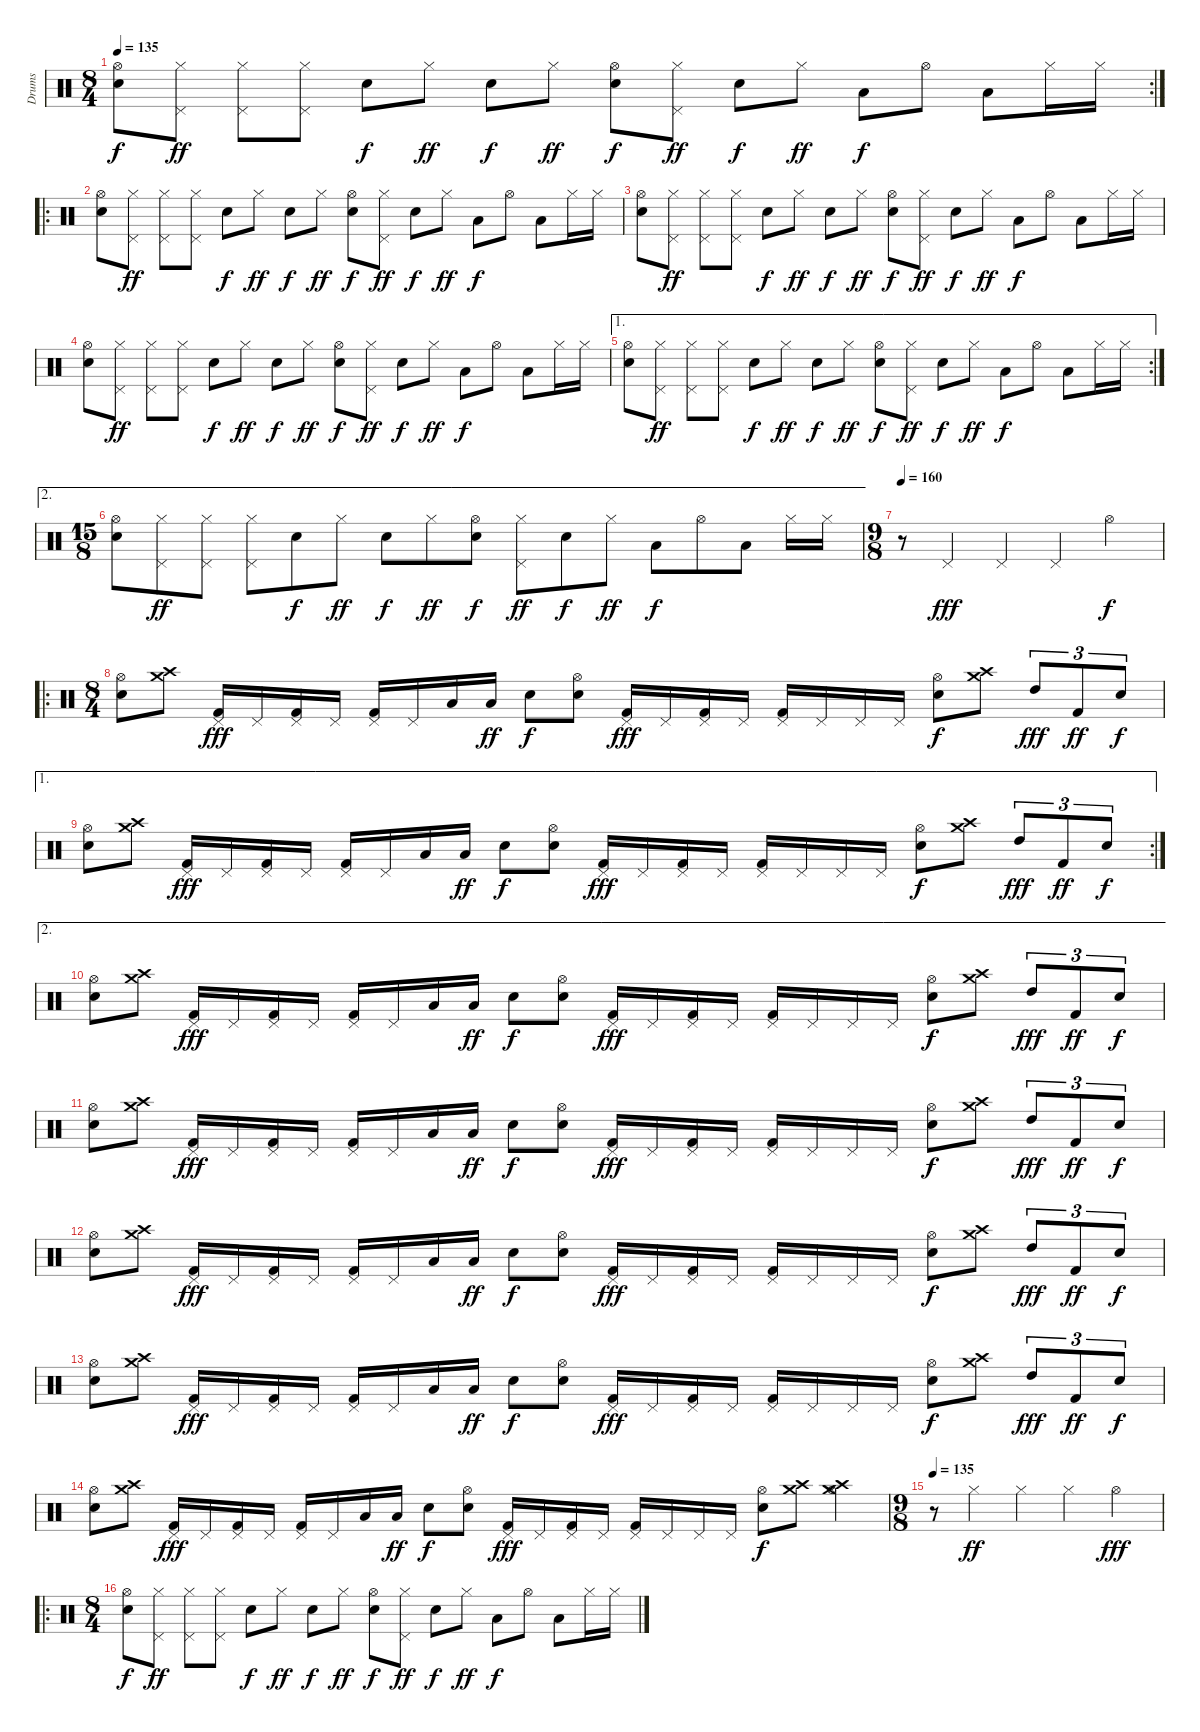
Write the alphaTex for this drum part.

\track ("Drums" "Drums") {instrument percussion}
\staff {score}
\articulation defaults
\rc 2
\ts (8 4)
\tempo 135
\clef neutral
\ks c
("Hi-Hat (open)" "Electric Snare (hit)").8{dy f} ("Pedal Hi-Hat (hit)" "Hi-Hat (closed)").8{dy ff} ("Hi-Hat (closed)" "Pedal Hi-Hat (hit)").8 ("Hi-Hat (closed)" "Pedal Hi-Hat (hit)").8 "Electric Snare (hit)".8{dy f} "Hi-Hat (closed)".8{dy ff} "Electric Snare (hit)".8{dy f} "Hi-Hat (closed)".8{dy ff} ("Hi-Hat (open)" "Electric Snare (hit)").8{dy f} ("Pedal Hi-Hat (hit)" "Hi-Hat (closed)").8{dy ff} "Electric Snare (hit)".8{dy f} "Hi-Hat (closed)".8{dy ff} "Low Tom (hit)".8{dy f} "Hi-Hat (open)".8 "Low Tom (hit)".8 "Hi-Hat (closed)".16 "Hi-Hat (closed)".16 |
\ro
("Hi-Hat (open)" "Electric Snare (hit)").8 ("Pedal Hi-Hat (hit)" "Hi-Hat (closed)").8{dy ff} ("Hi-Hat (closed)" "Pedal Hi-Hat (hit)").8 ("Hi-Hat (closed)" "Pedal Hi-Hat (hit)").8 "Electric Snare (hit)".8{dy f} "Hi-Hat (closed)".8{dy ff} "Electric Snare (hit)".8{dy f} "Hi-Hat (closed)".8{dy ff} ("Hi-Hat (open)" "Electric Snare (hit)").8{dy f} ("Pedal Hi-Hat (hit)" "Hi-Hat (closed)").8{dy ff} "Electric Snare (hit)".8{dy f} "Hi-Hat (closed)".8{dy ff} "Low Tom (hit)".8{dy f} "Hi-Hat (open)".8 "Low Tom (hit)".8 "Hi-Hat (closed)".16 "Hi-Hat (closed)".16 |
("Hi-Hat (open)" "Electric Snare (hit)").8 ("Pedal Hi-Hat (hit)" "Hi-Hat (closed)").8{dy ff} ("Hi-Hat (closed)" "Pedal Hi-Hat (hit)").8 ("Hi-Hat (closed)" "Pedal Hi-Hat (hit)").8 "Electric Snare (hit)".8{dy f} "Hi-Hat (closed)".8{dy ff} "Electric Snare (hit)".8{dy f} "Hi-Hat (closed)".8{dy ff} ("Hi-Hat (open)" "Electric Snare (hit)").8{dy f} ("Pedal Hi-Hat (hit)" "Hi-Hat (closed)").8{dy ff} "Electric Snare (hit)".8{dy f} "Hi-Hat (closed)".8{dy ff} "Low Tom (hit)".8{dy f} "Hi-Hat (open)".8 "Low Tom (hit)".8 "Hi-Hat (closed)".16 "Hi-Hat (closed)".16 |
("Hi-Hat (open)" "Electric Snare (hit)").8 ("Pedal Hi-Hat (hit)" "Hi-Hat (closed)").8{dy ff} ("Hi-Hat (closed)" "Pedal Hi-Hat (hit)").8 ("Hi-Hat (closed)" "Pedal Hi-Hat (hit)").8 "Electric Snare (hit)".8{dy f} "Hi-Hat (closed)".8{dy ff} "Electric Snare (hit)".8{dy f} "Hi-Hat (closed)".8{dy ff} ("Hi-Hat (open)" "Electric Snare (hit)").8{dy f} ("Pedal Hi-Hat (hit)" "Hi-Hat (closed)").8{dy ff} "Electric Snare (hit)".8{dy f} "Hi-Hat (closed)".8{dy ff} "Low Tom (hit)".8{dy f} "Hi-Hat (open)".8 "Low Tom (hit)".8 "Hi-Hat (closed)".16 "Hi-Hat (closed)".16 |
\ae 1
\rc 2
("Hi-Hat (open)" "Electric Snare (hit)").8 ("Pedal Hi-Hat (hit)" "Hi-Hat (closed)").8{dy ff} ("Hi-Hat (closed)" "Pedal Hi-Hat (hit)").8 ("Hi-Hat (closed)" "Pedal Hi-Hat (hit)").8 "Electric Snare (hit)".8{dy f} "Hi-Hat (closed)".8{dy ff} "Electric Snare (hit)".8{dy f} "Hi-Hat (closed)".8{dy ff} ("Hi-Hat (open)" "Electric Snare (hit)").8{dy f} ("Pedal Hi-Hat (hit)" "Hi-Hat (closed)").8{dy ff} "Electric Snare (hit)".8{dy f} "Hi-Hat (closed)".8{dy ff} "Low Tom (hit)".8{dy f} "Hi-Hat (open)".8 "Low Tom (hit)".8 "Hi-Hat (closed)".16 "Hi-Hat (closed)".16 |
\ae 2
\ts (15 8)
("Hi-Hat (open)" "Electric Snare (hit)").8 ("Pedal Hi-Hat (hit)" "Hi-Hat (closed)").8{dy ff} ("Hi-Hat (closed)" "Pedal Hi-Hat (hit)").8 ("Hi-Hat (closed)" "Pedal Hi-Hat (hit)").8 "Electric Snare (hit)".8{dy f} "Hi-Hat (closed)".8{dy ff} "Electric Snare (hit)".8{dy f} "Hi-Hat (closed)".8{dy ff} ("Hi-Hat (open)" "Electric Snare (hit)").8{dy f} ("Pedal Hi-Hat (hit)" "Hi-Hat (closed)").8{dy ff} "Electric Snare (hit)".8{dy f} "Hi-Hat (closed)".8{dy ff} "Low Tom (hit)".8{dy f} "Hi-Hat (open)".8 "Low Tom (hit)".8 "Hi-Hat (closed)".16 "Hi-Hat (closed)".16 |
\ts (9 8)
\tempo 160
r.8 "Pedal Hi-Hat (hit)".4{dy fff} "Pedal Hi-Hat (hit)".4 "Pedal Hi-Hat (hit)".4 "Hi-Hat (open)".4{dy f} |
\ro
\ts (8 4)
("Hi-Hat (open)" "Electric Snare (hit)").8 ("Crash medium (hit)" "Crash high (hit)").8 ("Pedal Hi-Hat (hit)" "Kick (hit) 2").16{dy fff} "Pedal Hi-Hat (hit)".16 ("Pedal Hi-Hat (hit)" "Kick (hit) 2").16 "Pedal Hi-Hat (hit)".16 ("Kick (hit) 2" "Pedal Hi-Hat (hit)").16 "Pedal Hi-Hat (hit)".16 "Low Tom (hit)".16 "Low Tom (hit)".16{dy ff} "Electric Snare (hit)".8{dy f} ("Electric Snare (hit)" "Hi-Hat (open)").8 ("Pedal Hi-Hat (hit)" "Kick (hit) 2").16{dy fff} "Pedal Hi-Hat (hit)".16 ("Kick (hit) 2" "Pedal Hi-Hat (hit)").16 "Pedal Hi-Hat (hit)".16 ("Pedal Hi-Hat (hit)" "Kick (hit) 2").16 "Pedal Hi-Hat (hit)".16 "Pedal Hi-Hat (hit)".16 "Pedal Hi-Hat (hit)".16 ("Hi-Hat (open)" "Electric Snare (hit)").8{dy f} ("Crash medium (hit)" "Crash high (hit)").8 "High Tom (hit)".8{tu (3 2) dy fff} "Kick (hit) 2".8{tu (3 2) dy ff} "Electric Snare (hit)".8{tu (3 2) dy f} |
\ae 1
\rc 2
("Hi-Hat (open)" "Electric Snare (hit)").8 ("Crash medium (hit)" "Crash high (hit)").8 ("Pedal Hi-Hat (hit)" "Kick (hit) 2").16{dy fff} "Pedal Hi-Hat (hit)".16 ("Pedal Hi-Hat (hit)" "Kick (hit) 2").16 "Pedal Hi-Hat (hit)".16 ("Kick (hit) 2" "Pedal Hi-Hat (hit)").16 "Pedal Hi-Hat (hit)".16 "Low Tom (hit)".16 "Low Tom (hit)".16{dy ff} "Electric Snare (hit)".8{dy f} ("Electric Snare (hit)" "Hi-Hat (open)").8 ("Pedal Hi-Hat (hit)" "Kick (hit) 2").16{dy fff} "Pedal Hi-Hat (hit)".16 ("Kick (hit) 2" "Pedal Hi-Hat (hit)").16 "Pedal Hi-Hat (hit)".16 ("Pedal Hi-Hat (hit)" "Kick (hit) 2").16 "Pedal Hi-Hat (hit)".16 "Pedal Hi-Hat (hit)".16 "Pedal Hi-Hat (hit)".16 ("Hi-Hat (open)" "Electric Snare (hit)").8{dy f} ("Crash medium (hit)" "Crash high (hit)").8 "High Tom (hit)".8{tu (3 2) dy fff} "Kick (hit) 2".8{tu (3 2) dy ff} "Electric Snare (hit)".8{tu (3 2) dy f} |
\ae 2
("Hi-Hat (open)" "Electric Snare (hit)").8 ("Crash medium (hit)" "Crash high (hit)").8 ("Pedal Hi-Hat (hit)" "Kick (hit) 2").16{dy fff} "Pedal Hi-Hat (hit)".16 ("Pedal Hi-Hat (hit)" "Kick (hit) 2").16 "Pedal Hi-Hat (hit)".16 ("Kick (hit) 2" "Pedal Hi-Hat (hit)").16 "Pedal Hi-Hat (hit)".16 "Low Tom (hit)".16 "Low Tom (hit)".16{dy ff} "Electric Snare (hit)".8{dy f} ("Electric Snare (hit)" "Hi-Hat (open)").8 ("Pedal Hi-Hat (hit)" "Kick (hit) 2").16{dy fff} "Pedal Hi-Hat (hit)".16 ("Kick (hit) 2" "Pedal Hi-Hat (hit)").16 "Pedal Hi-Hat (hit)".16 ("Pedal Hi-Hat (hit)" "Kick (hit) 2").16 "Pedal Hi-Hat (hit)".16 "Pedal Hi-Hat (hit)".16 "Pedal Hi-Hat (hit)".16 ("Hi-Hat (open)" "Electric Snare (hit)").8{dy f} ("Crash medium (hit)" "Crash high (hit)").8 "High Tom (hit)".8{tu (3 2) dy fff} "Kick (hit) 2".8{tu (3 2) dy ff} "Electric Snare (hit)".8{tu (3 2) dy f} |
("Hi-Hat (open)" "Electric Snare (hit)").8 ("Crash medium (hit)" "Crash high (hit)").8 ("Pedal Hi-Hat (hit)" "Kick (hit) 2").16{dy fff} "Pedal Hi-Hat (hit)".16 ("Pedal Hi-Hat (hit)" "Kick (hit) 2").16 "Pedal Hi-Hat (hit)".16 ("Kick (hit) 2" "Pedal Hi-Hat (hit)").16 "Pedal Hi-Hat (hit)".16 "Low Tom (hit)".16 "Low Tom (hit)".16{dy ff} "Electric Snare (hit)".8{dy f} ("Electric Snare (hit)" "Hi-Hat (open)").8 ("Pedal Hi-Hat (hit)" "Kick (hit) 2").16{dy fff} "Pedal Hi-Hat (hit)".16 ("Kick (hit) 2" "Pedal Hi-Hat (hit)").16 "Pedal Hi-Hat (hit)".16 ("Pedal Hi-Hat (hit)" "Kick (hit) 2").16 "Pedal Hi-Hat (hit)".16 "Pedal Hi-Hat (hit)".16 "Pedal Hi-Hat (hit)".16 ("Hi-Hat (open)" "Electric Snare (hit)").8{dy f} ("Crash medium (hit)" "Crash high (hit)").8 "High Tom (hit)".8{tu (3 2) dy fff} "Kick (hit) 2".8{tu (3 2) dy ff} "Electric Snare (hit)".8{tu (3 2) dy f} |
("Hi-Hat (open)" "Electric Snare (hit)").8 ("Crash medium (hit)" "Crash high (hit)").8 ("Pedal Hi-Hat (hit)" "Kick (hit) 2").16{dy fff} "Pedal Hi-Hat (hit)".16 ("Pedal Hi-Hat (hit)" "Kick (hit) 2").16 "Pedal Hi-Hat (hit)".16 ("Kick (hit) 2" "Pedal Hi-Hat (hit)").16 "Pedal Hi-Hat (hit)".16 "Low Tom (hit)".16 "Low Tom (hit)".16{dy ff} "Electric Snare (hit)".8{dy f} ("Electric Snare (hit)" "Hi-Hat (open)").8 ("Pedal Hi-Hat (hit)" "Kick (hit) 2").16{dy fff} "Pedal Hi-Hat (hit)".16 ("Kick (hit) 2" "Pedal Hi-Hat (hit)").16 "Pedal Hi-Hat (hit)".16 ("Pedal Hi-Hat (hit)" "Kick (hit) 2").16 "Pedal Hi-Hat (hit)".16 "Pedal Hi-Hat (hit)".16 "Pedal Hi-Hat (hit)".16 ("Hi-Hat (open)" "Electric Snare (hit)").8{dy f} ("Crash medium (hit)" "Crash high (hit)").8 "High Tom (hit)".8{tu (3 2) dy fff} "Kick (hit) 2".8{tu (3 2) dy ff} "Electric Snare (hit)".8{tu (3 2) dy f} |
("Hi-Hat (open)" "Electric Snare (hit)").8 ("Crash medium (hit)" "Crash high (hit)").8 ("Pedal Hi-Hat (hit)" "Kick (hit) 2").16{dy fff} "Pedal Hi-Hat (hit)".16 ("Pedal Hi-Hat (hit)" "Kick (hit) 2").16 "Pedal Hi-Hat (hit)".16 ("Kick (hit) 2" "Pedal Hi-Hat (hit)").16 "Pedal Hi-Hat (hit)".16 "Low Tom (hit)".16 "Low Tom (hit)".16{dy ff} "Electric Snare (hit)".8{dy f} ("Electric Snare (hit)" "Hi-Hat (open)").8 ("Pedal Hi-Hat (hit)" "Kick (hit) 2").16{dy fff} "Pedal Hi-Hat (hit)".16 ("Kick (hit) 2" "Pedal Hi-Hat (hit)").16 "Pedal Hi-Hat (hit)".16 ("Pedal Hi-Hat (hit)" "Kick (hit) 2").16 "Pedal Hi-Hat (hit)".16 "Pedal Hi-Hat (hit)".16 "Pedal Hi-Hat (hit)".16 ("Hi-Hat (open)" "Electric Snare (hit)").8{dy f} ("Crash medium (hit)" "Crash high (hit)").8 "High Tom (hit)".8{tu (3 2) dy fff} "Kick (hit) 2".8{tu (3 2) dy ff} "Electric Snare (hit)".8{tu (3 2) dy f} |
("Hi-Hat (open)" "Electric Snare (hit)").8 ("Crash medium (hit)" "Crash high (hit)").8 ("Pedal Hi-Hat (hit)" "Kick (hit) 2").16{dy fff} "Pedal Hi-Hat (hit)".16 ("Pedal Hi-Hat (hit)" "Kick (hit) 2").16 "Pedal Hi-Hat (hit)".16 ("Kick (hit) 2" "Pedal Hi-Hat (hit)").16 "Pedal Hi-Hat (hit)".16 "Low Tom (hit)".16 "Low Tom (hit)".16{dy ff} "Electric Snare (hit)".8{dy f} ("Electric Snare (hit)" "Hi-Hat (open)").8 ("Pedal Hi-Hat (hit)" "Kick (hit) 2").16{dy fff} "Pedal Hi-Hat (hit)".16 ("Kick (hit) 2" "Pedal Hi-Hat (hit)").16 "Pedal Hi-Hat (hit)".16 ("Pedal Hi-Hat (hit)" "Kick (hit) 2").16 "Pedal Hi-Hat (hit)".16 "Pedal Hi-Hat (hit)".16 "Pedal Hi-Hat (hit)".16 ("Hi-Hat (open)" "Electric Snare (hit)").8{dy f} ("Crash medium (hit)" "Crash high (hit)").8 ("Crash medium (hit)" "Crash high (hit)" "Hi-Hat (open)").4 |
\ts (9 8)
\tempo 135
r.8 "Hi-Hat (closed)".4{dy ff} "Hi-Hat (closed)".4 "Hi-Hat (closed)".4 "Hi-Hat (open)".4{dy fff} |
\ro
\ts (8 4)
("Hi-Hat (open)" "Electric Snare (hit)").8{dy f} ("Pedal Hi-Hat (hit)" "Hi-Hat (closed)").8{dy ff} ("Hi-Hat (closed)" "Pedal Hi-Hat (hit)").8 ("Hi-Hat (closed)" "Pedal Hi-Hat (hit)").8 "Electric Snare (hit)".8{dy f} "Hi-Hat (closed)".8{dy ff} "Electric Snare (hit)".8{dy f} "Hi-Hat (closed)".8{dy ff} ("Hi-Hat (open)" "Electric Snare (hit)").8{dy f} ("Pedal Hi-Hat (hit)" "Hi-Hat (closed)").8{dy ff} "Electric Snare (hit)".8{dy f} "Hi-Hat (closed)".8{dy ff} "Low Tom (hit)".8{dy f} "Hi-Hat (open)".8 "Low Tom (hit)".8 "Hi-Hat (closed)".16 "Hi-Hat (closed)".16
